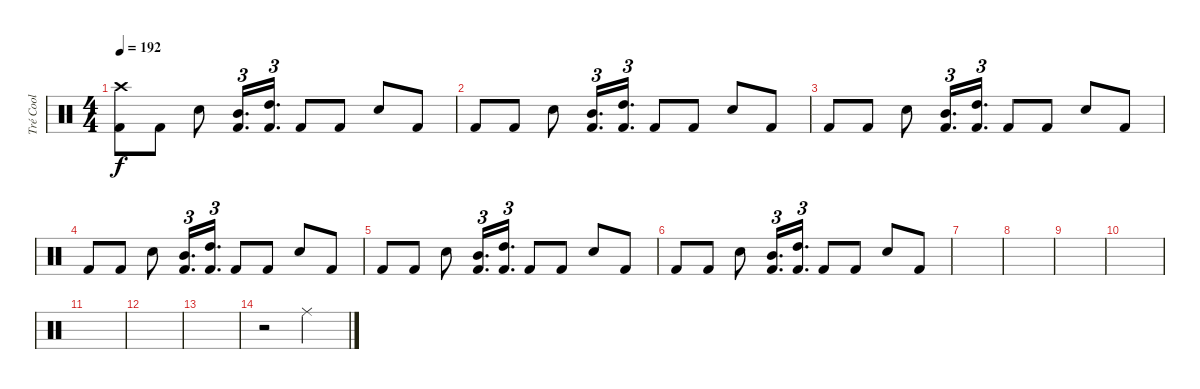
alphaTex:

\track ("Tré Cool" "Tré Cool") {solo instrument percussion}
\staff {score}
\articulation defaults
\ts (4 4)
\tempo 192
\clef neutral
\ks c
("Kick (hit) 2" "Crash high (hit)").8{dy f} "Kick (hit) 2".8 "Electric Snare (hit)".8 ("Kick (hit) 2" "Mid Tom (hit)").16{d tu (3 2)} ("Kick (hit) 2" "High Tom (hit)").16{d tu (3 2)} "Kick (hit) 2".8 "Kick (hit) 2".8 "Electric Snare (hit)".8 "Kick (hit) 2".8 |
"Kick (hit) 2".8 "Kick (hit) 2".8 "Electric Snare (hit)".8 ("Kick (hit) 2" "Mid Tom (hit)").16{d tu (3 2)} ("Kick (hit) 2" "High Tom (hit)").16{d tu (3 2)} "Kick (hit) 2".8 "Kick (hit) 2".8 "Electric Snare (hit)".8 "Kick (hit) 2".8 |
"Kick (hit) 2".8 "Kick (hit) 2".8 "Electric Snare (hit)".8 ("Kick (hit) 2" "Mid Tom (hit)").16{d tu (3 2)} ("Kick (hit) 2" "High Tom (hit)").16{d tu (3 2)} "Kick (hit) 2".8 "Kick (hit) 2".8 "Electric Snare (hit)".8 "Kick (hit) 2".8 |
"Kick (hit) 2".8 "Kick (hit) 2".8 "Electric Snare (hit)".8 ("Kick (hit) 2" "Mid Tom (hit)").16{d tu (3 2)} ("Kick (hit) 2" "High Tom (hit)").16{d tu (3 2)} "Kick (hit) 2".8 "Kick (hit) 2".8 "Electric Snare (hit)".8 "Kick (hit) 2".8 |
"Kick (hit) 2".8 "Kick (hit) 2".8 "Electric Snare (hit)".8 ("Kick (hit) 2" "Mid Tom (hit)").16{d tu (3 2)} ("Kick (hit) 2" "High Tom (hit)").16{d tu (3 2)} "Kick (hit) 2".8 "Kick (hit) 2".8 "Electric Snare (hit)".8 "Kick (hit) 2".8 |
"Kick (hit) 2".8 "Kick (hit) 2".8 "Electric Snare (hit)".8 ("Kick (hit) 2" "Mid Tom (hit)").16{d tu (3 2)} ("Kick (hit) 2" "High Tom (hit)").16{d tu (3 2)} "Kick (hit) 2".8 "Kick (hit) 2".8 "Electric Snare (hit)".8 "Kick (hit) 2".8 |
|
|
|
|
|
|
|
r.2 "Ride (middle)".2
